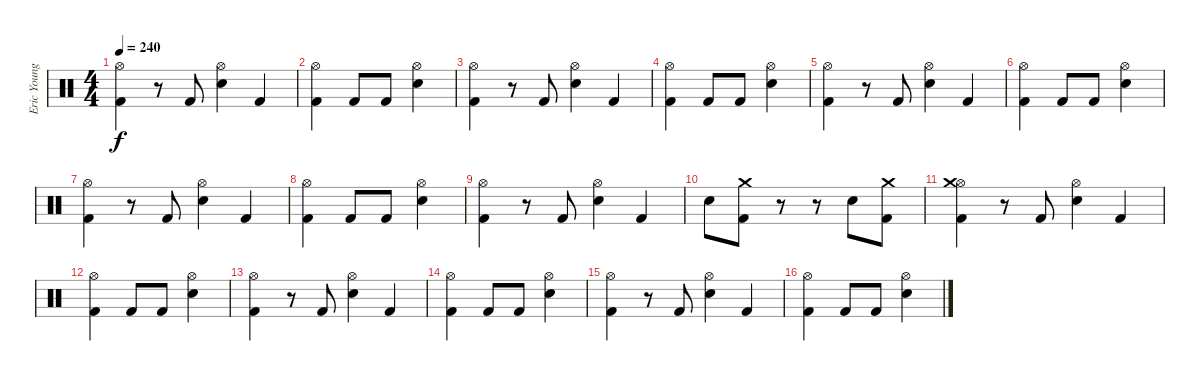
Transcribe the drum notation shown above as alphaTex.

\track ("Eric Young (Drums)" "Eric Young") {instrument percussion}
\staff {score}
\articulation defaults
\ts (4 4)
\tempo 240
\clef neutral
\ks c
("Hi-Hat (open)" "Kick (hit) 2").4{dy f} r.8 "Kick (hit) 2".8 ("Hi-Hat (open)" "Snare (hit) 2").4 "Kick (hit) 2".4 |
("Hi-Hat (open)" "Kick (hit) 2").4 "Kick (hit) 2".8 "Kick (hit) 2".8 ("Hi-Hat (open)" "Snare (hit) 2").4 |
("Hi-Hat (open)" "Kick (hit) 2").4 r.8 "Kick (hit) 2".8 ("Hi-Hat (open)" "Snare (hit) 2").4 "Kick (hit) 2".4 |
("Hi-Hat (open)" "Kick (hit) 2").4 "Kick (hit) 2".8 "Kick (hit) 2".8 ("Hi-Hat (open)" "Snare (hit) 2").4 |
("Hi-Hat (open)" "Kick (hit) 2").4 r.8 "Kick (hit) 2".8 ("Hi-Hat (open)" "Snare (hit) 2").4 "Kick (hit) 2".4 |
("Hi-Hat (open)" "Kick (hit) 2").4 "Kick (hit) 2".8 "Kick (hit) 2".8 ("Hi-Hat (open)" "Snare (hit) 2").4 |
("Hi-Hat (open)" "Kick (hit) 2").4 r.8 "Kick (hit) 2".8 ("Hi-Hat (open)" "Snare (hit) 2").4 "Kick (hit) 2".4 |
("Hi-Hat (open)" "Kick (hit) 2").4 "Kick (hit) 2".8 "Kick (hit) 2".8 ("Hi-Hat (open)" "Snare (hit) 2").4 |
("Hi-Hat (open)" "Kick (hit) 2").4 r.8 "Kick (hit) 2".8 ("Hi-Hat (open)" "Snare (hit) 2").4 "Kick (hit) 2".4 |
"Snare (hit) 2".8 ("Kick (hit) 2" "Crash medium (hit)").8 r.8 r.8 "Snare (hit) 2".8 ("Kick (hit) 2" "Crash medium (hit)").8 |
("Hi-Hat (open)" "Kick (hit) 2" "Crash medium (hit)").4 r.8 "Kick (hit) 2".8 ("Hi-Hat (open)" "Snare (hit) 2").4 "Kick (hit) 2".4 |
("Hi-Hat (open)" "Kick (hit) 2").4 "Kick (hit) 2".8 "Kick (hit) 2".8 ("Hi-Hat (open)" "Snare (hit) 2").4 |
("Hi-Hat (open)" "Kick (hit) 2").4 r.8 "Kick (hit) 2".8 ("Hi-Hat (open)" "Snare (hit) 2").4 "Kick (hit) 2".4 |
("Hi-Hat (open)" "Kick (hit) 2").4 "Kick (hit) 2".8 "Kick (hit) 2".8 ("Hi-Hat (open)" "Snare (hit) 2").4 |
("Hi-Hat (open)" "Kick (hit) 2").4 r.8 "Kick (hit) 2".8 ("Hi-Hat (open)" "Snare (hit) 2").4 "Kick (hit) 2".4 |
("Hi-Hat (open)" "Kick (hit) 2").4 "Kick (hit) 2".8 "Kick (hit) 2".8 ("Hi-Hat (open)" "Snare (hit) 2").4
